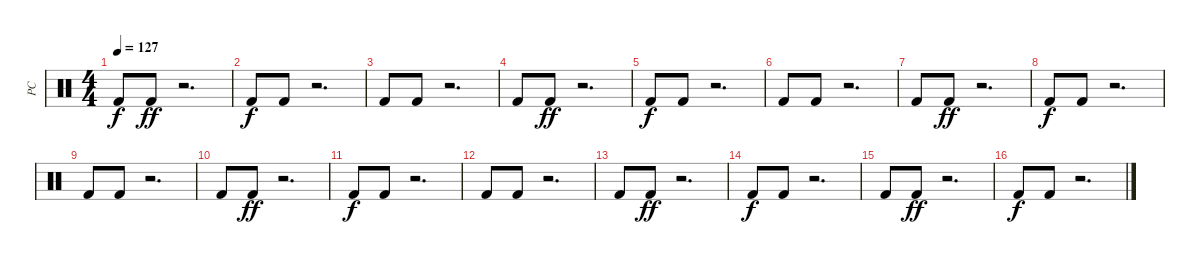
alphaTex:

\track ("PC" "PC") {instrument percussion}
\staff {score}
\articulation defaults
\ts (4 4)
\tempo 127
\clef neutral
\ks c "Kick (hit) 2".8{dy f} "Kick (hit) 2".8{dy ff}
r.2{d} |
"Kick (hit) 2".8{dy f} "Kick (hit) 2".8 r.2{d} |
"Kick (hit) 2".8 "Kick (hit) 2".8 r.2{d} |
"Kick (hit) 2".8 "Kick (hit) 2".8{dy ff} r.2{d} |
"Kick (hit) 2".8{dy f} "Kick (hit) 2".8 r.2{d} |
"Kick (hit) 2".8 "Kick (hit) 2".8 r.2{d} |
"Kick (hit) 2".8 "Kick (hit) 2".8{dy ff} r.2{d} |
"Kick (hit) 2".8{dy f} "Kick (hit) 2".8 r.2{d} |
"Kick (hit) 2".8 "Kick (hit) 2".8 r.2{d} |
"Kick (hit) 2".8 "Kick (hit) 2".8{dy ff} r.2{d} |
"Kick (hit) 2".8{dy f} "Kick (hit) 2".8 r.2{d} |
"Kick (hit) 2".8 "Kick (hit) 2".8 r.2{d} |
"Kick (hit) 2".8 "Kick (hit) 2".8{dy ff} r.2{d} |
"Kick (hit) 2".8{dy f} "Kick (hit) 2".8 r.2{d} |
"Kick (hit) 2".8 "Kick (hit) 2".8{dy ff} r.2{d} |
"Kick (hit) 2".8{dy f} "Kick (hit) 2".8 r.2{d}
